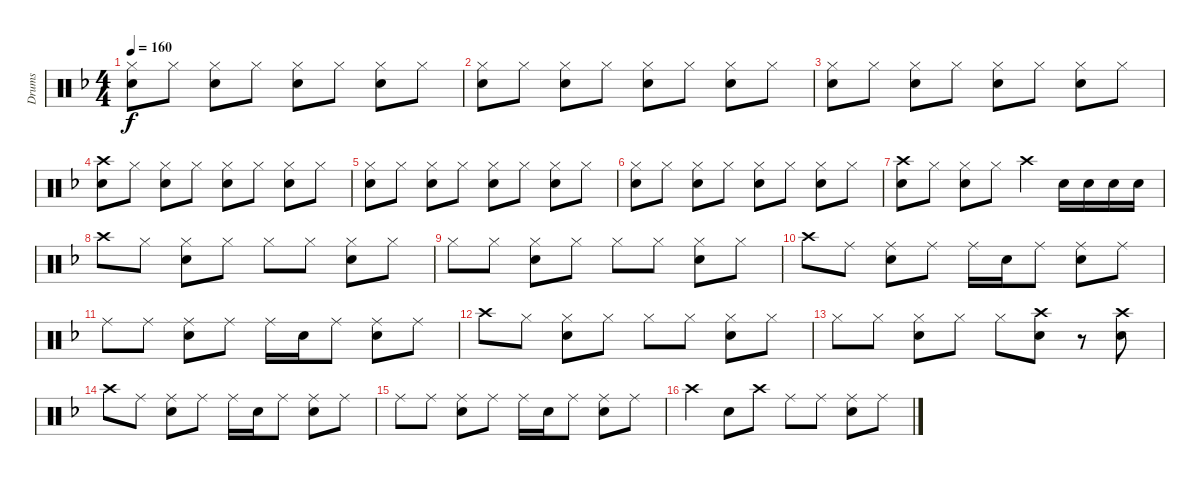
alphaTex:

\track ("Drums" "Drums") {instrument percussion}
\staff {score}
\articulation defaults
\ts (4 4)
\tempo 160
\clef neutral
\ks f
("Hi-Hat (closed)" "Snare (hit) 2").8{dy f} "Hi-Hat (closed)".8 ("Hi-Hat (closed)" "Snare (hit) 2").8 "Hi-Hat (closed)".8 ("Hi-Hat (closed)" "Snare (hit) 2").8 "Hi-Hat (closed)".8 ("Hi-Hat (closed)" "Snare (hit) 2").8 "Hi-Hat (closed)".8 |
("Hi-Hat (closed)" "Snare (hit) 2").8 "Hi-Hat (closed)".8 ("Hi-Hat (closed)" "Snare (hit) 2").8 "Hi-Hat (closed)".8 ("Hi-Hat (closed)" "Snare (hit) 2").8 "Hi-Hat (closed)".8 ("Hi-Hat (closed)" "Snare (hit) 2").8 "Hi-Hat (closed)".8 |
("Hi-Hat (closed)" "Snare (hit) 2").8 "Hi-Hat (closed)".8 ("Hi-Hat (closed)" "Snare (hit) 2").8 "Hi-Hat (closed)".8 ("Hi-Hat (closed)" "Snare (hit) 2").8 "Hi-Hat (closed)".8 ("Hi-Hat (closed)" "Snare (hit) 2").8 "Hi-Hat (closed)".8 |
("Crash high (hit)" "Snare (hit) 2").8 "Hi-Hat (closed)".8 ("Hi-Hat (closed)" "Snare (hit) 2").8 "Hi-Hat (closed)".8 ("Hi-Hat (closed)" "Snare (hit) 2").8 "Hi-Hat (closed)".8 ("Hi-Hat (closed)" "Snare (hit) 2").8 "Hi-Hat (closed)".8 |
("Hi-Hat (closed)" "Snare (hit) 2").8 "Hi-Hat (closed)".8 ("Hi-Hat (closed)" "Snare (hit) 2").8 "Hi-Hat (closed)".8 ("Hi-Hat (closed)" "Snare (hit) 2").8 "Hi-Hat (closed)".8 ("Hi-Hat (closed)" "Snare (hit) 2").8 "Hi-Hat (closed)".8 |
("Hi-Hat (closed)" "Snare (hit) 2").8 "Hi-Hat (closed)".8 ("Hi-Hat (closed)" "Snare (hit) 2").8 "Hi-Hat (closed)".8 ("Hi-Hat (closed)" "Snare (hit) 2").8 "Hi-Hat (closed)".8 ("Hi-Hat (closed)" "Snare (hit) 2").8 "Hi-Hat (closed)".8 |
("Crash high (hit)" "Snare (hit) 2").8 "Hi-Hat (closed)".8 ("Hi-Hat (closed)" "Snare (hit) 2").8 "Hi-Hat (closed)".8 "Crash high (hit)".4 "Snare (hit) 2".16 "Snare (hit) 2".16 "Snare (hit) 2".16 "Snare (hit) 2".16 |
"Crash high (hit)".8 "Hi-Hat (closed)".8 ("Hi-Hat (closed)" "Snare (hit) 2").8 "Hi-Hat (closed)".8 "Hi-Hat (closed)".8 "Hi-Hat (closed)".8 ("Hi-Hat (closed)" "Snare (hit) 2").8 "Hi-Hat (closed)".8 |
"Hi-Hat (closed)".8 "Hi-Hat (closed)".8 ("Hi-Hat (closed)" "Snare (hit) 2").8 "Hi-Hat (closed)".8 "Hi-Hat (closed)".8 "Hi-Hat (closed)".8 ("Hi-Hat (closed)" "Snare (hit) 2").8 "Hi-Hat (closed)".8 |
"Crash high (hit)".8 "Ride (middle)".8 ("Ride (middle)" "Snare (hit) 2").8 "Ride (middle)".8 "Ride (middle)".16 "Snare (hit) 2".16 "Ride (middle)".8 ("Ride (middle)" "Snare (hit) 2").8 "Ride (middle)".8 |
"Ride (middle)".8 "Ride (middle)".8 ("Ride (middle)" "Snare (hit) 2").8 "Ride (middle)".8 "Ride (middle)".16 "Snare (hit) 2".16 "Ride (middle)".8 ("Ride (middle)" "Snare (hit) 2").8 "Ride (middle)".8 |
"Crash high (hit)".8 "Hi-Hat (closed)".8 ("Hi-Hat (closed)" "Snare (hit) 2").8 "Hi-Hat (closed)".8 "Hi-Hat (closed)".8 "Hi-Hat (closed)".8 ("Hi-Hat (closed)" "Snare (hit) 2").8 "Hi-Hat (closed)".8 |
"Hi-Hat (closed)".8 "Hi-Hat (closed)".8 ("Hi-Hat (closed)" "Snare (hit) 2").8 "Hi-Hat (closed)".8 "Hi-Hat (closed)".8 ("Crash high (hit)" "Snare (hit) 2").8 r.8 ("Crash high (hit)" "Snare (hit) 2").8 |
"Crash high (hit)".8 "Ride (middle)".8 ("Ride (middle)" "Snare (hit) 2").8 "Ride (middle)".8 "Ride (middle)".16 "Snare (hit) 2".16 "Ride (middle)".8 ("Ride (middle)" "Snare (hit) 2").8 "Ride (middle)".8 |
"Ride (middle)".8 "Ride (middle)".8 ("Ride (middle)" "Snare (hit) 2").8 "Ride (middle)".8 "Ride (middle)".16 "Snare (hit) 2".16 "Ride (middle)".8 ("Ride (middle)" "Snare (hit) 2").8 "Ride (middle)".8 |
"Crash high (hit)".4 "Snare (hit) 2".8 "Crash high (hit)".8 "Ride (middle)".8 "Ride (middle)".8 ("Ride (middle)" "Snare (hit) 2").8 "Ride (middle)".8
